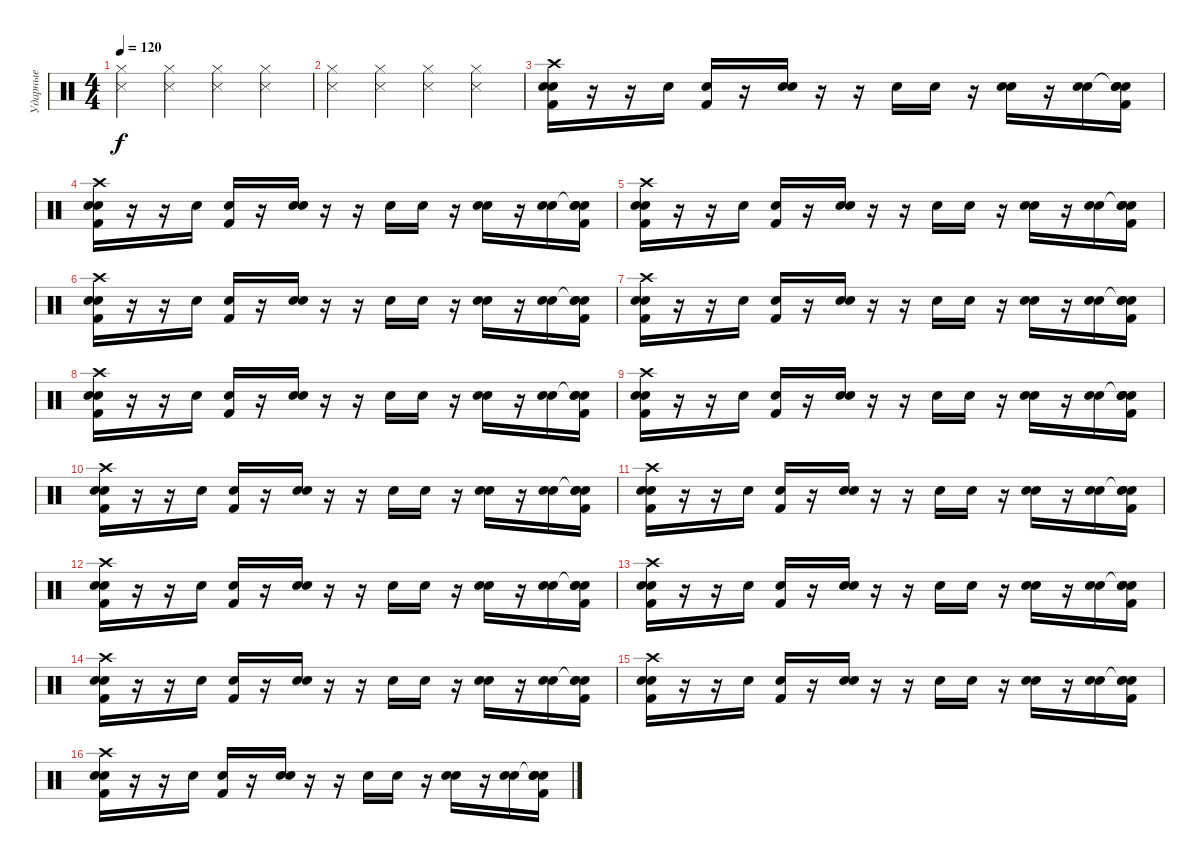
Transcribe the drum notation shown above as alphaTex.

\track ("Ударные" "Ударные") {instrument percussion}
\staff {score}
\articulation defaults
\ts (4 4)
\tempo 120
\clef neutral
\ks c
("Hi-Hat (closed)" "Snare (side stick) 3").4{dy f} ("Hi-Hat (closed)" "Snare (side stick) 3").4 ("Hi-Hat (closed)" "Snare (side stick) 3").4 ("Hi-Hat (closed)" "Snare (side stick) 3").4 |
("Hi-Hat (closed)" "Snare (side stick) 3").4 ("Hi-Hat (closed)" "Snare (side stick) 3").4 ("Hi-Hat (closed)" "Snare (side stick) 3").4 ("Hi-Hat (closed)" "Snare (side stick) 3").4 |
("Crash high (hit)" "Electric Snare (hit)" "Electric Snare (hit)" "Kick (hit) 2").16 r.16 r.16 "Electric Snare (hit)".16 ("Electric Snare (hit)" "Kick (hit) 2").16 r.16 ("Electric Snare (hit)" "Electric Snare (hit)").16 r.16 r.16 "Electric Snare (hit)".16 "Electric Snare (hit)".16 r.16 ("Electric Snare (hit)" "Snare (hit) 2").16 r.16 ("Electric Snare (hit)" "Electric Snare (hit)").16 ("Snare (hit)"{t} "Electric Snare (hit)" "Electric Snare (hit)" "Kick (hit) 2").16 |
("Crash high (hit)" "Electric Snare (hit)" "Electric Snare (hit)" "Kick (hit) 2").16 r.16 r.16 "Electric Snare (hit)".16 ("Electric Snare (hit)" "Kick (hit) 2").16 r.16 ("Electric Snare (hit)" "Electric Snare (hit)").16 r.16 r.16 "Electric Snare (hit)".16 "Electric Snare (hit)".16 r.16 ("Electric Snare (hit)" "Snare (hit) 2").16 r.16 ("Electric Snare (hit)" "Electric Snare (hit)").16 ("Snare (hit)"{t} "Electric Snare (hit)" "Electric Snare (hit)" "Kick (hit) 2").16 |
("Crash high (hit)" "Electric Snare (hit)" "Electric Snare (hit)" "Kick (hit) 2").16 r.16 r.16 "Electric Snare (hit)".16 ("Electric Snare (hit)" "Kick (hit) 2").16 r.16 ("Electric Snare (hit)" "Electric Snare (hit)").16 r.16 r.16 "Electric Snare (hit)".16 "Electric Snare (hit)".16 r.16 ("Electric Snare (hit)" "Snare (hit) 2").16 r.16 ("Electric Snare (hit)" "Electric Snare (hit)").16 ("Snare (hit)"{t} "Electric Snare (hit)" "Electric Snare (hit)" "Kick (hit) 2").16 |
("Crash high (hit)" "Electric Snare (hit)" "Electric Snare (hit)" "Kick (hit) 2").16 r.16 r.16 "Electric Snare (hit)".16 ("Electric Snare (hit)" "Kick (hit) 2").16 r.16 ("Electric Snare (hit)" "Electric Snare (hit)").16 r.16 r.16 "Electric Snare (hit)".16 "Electric Snare (hit)".16 r.16 ("Electric Snare (hit)" "Snare (hit) 2").16 r.16 ("Electric Snare (hit)" "Electric Snare (hit)").16 ("Snare (hit)"{t} "Electric Snare (hit)" "Electric Snare (hit)" "Kick (hit) 2").16 |
("Crash high (hit)" "Electric Snare (hit)" "Electric Snare (hit)" "Kick (hit) 2").16 r.16 r.16 "Electric Snare (hit)".16 ("Electric Snare (hit)" "Kick (hit) 2").16 r.16 ("Electric Snare (hit)" "Electric Snare (hit)").16 r.16 r.16 "Electric Snare (hit)".16 "Electric Snare (hit)".16 r.16 ("Electric Snare (hit)" "Snare (hit) 2").16 r.16 ("Electric Snare (hit)" "Electric Snare (hit)").16 ("Snare (hit)"{t} "Electric Snare (hit)" "Electric Snare (hit)" "Kick (hit) 2").16 |
("Crash high (hit)" "Electric Snare (hit)" "Electric Snare (hit)" "Kick (hit) 2").16 r.16 r.16 "Electric Snare (hit)".16 ("Electric Snare (hit)" "Kick (hit) 2").16 r.16 ("Electric Snare (hit)" "Electric Snare (hit)").16 r.16 r.16 "Electric Snare (hit)".16 "Electric Snare (hit)".16 r.16 ("Electric Snare (hit)" "Snare (hit) 2").16 r.16 ("Electric Snare (hit)" "Electric Snare (hit)").16 ("Snare (hit)"{t} "Electric Snare (hit)" "Electric Snare (hit)" "Kick (hit) 2").16 |
("Crash high (hit)" "Electric Snare (hit)" "Electric Snare (hit)" "Kick (hit) 2").16 r.16 r.16 "Electric Snare (hit)".16 ("Electric Snare (hit)" "Kick (hit) 2").16 r.16 ("Electric Snare (hit)" "Electric Snare (hit)").16 r.16 r.16 "Electric Snare (hit)".16 "Electric Snare (hit)".16 r.16 ("Electric Snare (hit)" "Snare (hit) 2").16 r.16 ("Electric Snare (hit)" "Electric Snare (hit)").16 ("Snare (hit)"{t} "Electric Snare (hit)" "Electric Snare (hit)" "Kick (hit) 2").16 |
("Crash high (hit)" "Electric Snare (hit)" "Electric Snare (hit)" "Kick (hit) 2").16 r.16 r.16 "Electric Snare (hit)".16 ("Electric Snare (hit)" "Kick (hit) 2").16 r.16 ("Electric Snare (hit)" "Electric Snare (hit)").16 r.16 r.16 "Electric Snare (hit)".16 "Electric Snare (hit)".16 r.16 ("Electric Snare (hit)" "Snare (hit) 2").16 r.16 ("Electric Snare (hit)" "Electric Snare (hit)").16 ("Snare (hit)"{t} "Electric Snare (hit)" "Electric Snare (hit)" "Kick (hit) 2").16 |
("Crash high (hit)" "Electric Snare (hit)" "Electric Snare (hit)" "Kick (hit) 2").16 r.16 r.16 "Electric Snare (hit)".16 ("Electric Snare (hit)" "Kick (hit) 2").16 r.16 ("Electric Snare (hit)" "Electric Snare (hit)").16 r.16 r.16 "Electric Snare (hit)".16 "Electric Snare (hit)".16 r.16 ("Electric Snare (hit)" "Snare (hit) 2").16 r.16 ("Electric Snare (hit)" "Electric Snare (hit)").16 ("Snare (hit)"{t} "Electric Snare (hit)" "Electric Snare (hit)" "Kick (hit) 2").16 |
("Crash high (hit)" "Electric Snare (hit)" "Electric Snare (hit)" "Kick (hit) 2").16 r.16 r.16 "Electric Snare (hit)".16 ("Electric Snare (hit)" "Kick (hit) 2").16 r.16 ("Electric Snare (hit)" "Electric Snare (hit)").16 r.16 r.16 "Electric Snare (hit)".16 "Electric Snare (hit)".16 r.16 ("Electric Snare (hit)" "Snare (hit) 2").16 r.16 ("Electric Snare (hit)" "Electric Snare (hit)").16 ("Snare (hit)"{t} "Electric Snare (hit)" "Electric Snare (hit)" "Kick (hit) 2").16 |
("Crash high (hit)" "Electric Snare (hit)" "Electric Snare (hit)" "Kick (hit) 2").16 r.16 r.16 "Electric Snare (hit)".16 ("Electric Snare (hit)" "Kick (hit) 2").16 r.16 ("Electric Snare (hit)" "Electric Snare (hit)").16 r.16 r.16 "Electric Snare (hit)".16 "Electric Snare (hit)".16 r.16 ("Electric Snare (hit)" "Snare (hit) 2").16 r.16 ("Electric Snare (hit)" "Electric Snare (hit)").16 ("Snare (hit)"{t} "Electric Snare (hit)" "Electric Snare (hit)" "Kick (hit) 2").16 |
("Crash high (hit)" "Electric Snare (hit)" "Electric Snare (hit)" "Kick (hit) 2").16 r.16 r.16 "Electric Snare (hit)".16 ("Electric Snare (hit)" "Kick (hit) 2").16 r.16 ("Electric Snare (hit)" "Electric Snare (hit)").16 r.16 r.16 "Electric Snare (hit)".16 "Electric Snare (hit)".16 r.16 ("Electric Snare (hit)" "Snare (hit) 2").16 r.16 ("Electric Snare (hit)" "Electric Snare (hit)").16 ("Snare (hit)"{t} "Electric Snare (hit)" "Electric Snare (hit)" "Kick (hit) 2").16 |
("Crash high (hit)" "Electric Snare (hit)" "Electric Snare (hit)" "Kick (hit) 2").16 r.16 r.16 "Electric Snare (hit)".16 ("Electric Snare (hit)" "Kick (hit) 2").16 r.16 ("Electric Snare (hit)" "Electric Snare (hit)").16 r.16 r.16 "Electric Snare (hit)".16 "Electric Snare (hit)".16 r.16 ("Electric Snare (hit)" "Snare (hit) 2").16 r.16 ("Electric Snare (hit)" "Electric Snare (hit)").16 ("Snare (hit)"{t} "Electric Snare (hit)" "Electric Snare (hit)" "Kick (hit) 2").16 |
("Crash high (hit)" "Electric Snare (hit)" "Electric Snare (hit)" "Kick (hit) 2").16 r.16 r.16 "Electric Snare (hit)".16 ("Electric Snare (hit)" "Kick (hit) 2").16 r.16 ("Electric Snare (hit)" "Electric Snare (hit)").16 r.16 r.16 "Electric Snare (hit)".16 "Electric Snare (hit)".16 r.16 ("Electric Snare (hit)" "Snare (hit) 2").16 r.16 ("Electric Snare (hit)" "Electric Snare (hit)").16 ("Snare (hit)"{t} "Electric Snare (hit)" "Electric Snare (hit)" "Kick (hit) 2").16
